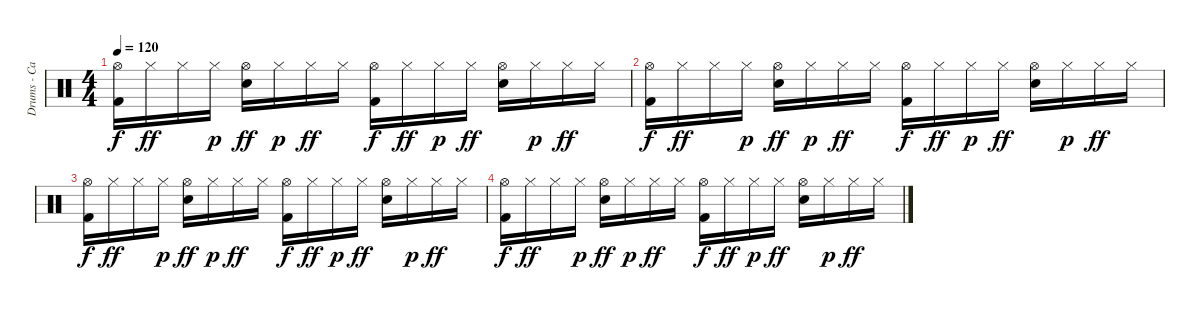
\track ("Drums - Carl Palmer" "Drums - Ca") {instrument percussion}
\staff {score}
\articulation defaults
\ts (4 4)
\tempo 120
\clef neutral
\ks c
("Hi-Hat (open)" "Kick (hit) 2").16{dy f} "Hi-Hat (closed)".16{dy ff} "Hi-Hat (closed)".16 "Hi-Hat (closed)".16{dy p} ("Hi-Hat (open)" "Snare (hit) 2").16{dy ff} "Hi-Hat (closed)".16{dy p} "Hi-Hat (closed)".16{dy ff} "Hi-Hat (closed)".16 ("Hi-Hat (open)" "Kick (hit) 2").16{dy f} "Hi-Hat (closed)".16{dy ff} "Hi-Hat (closed)".16{dy p} "Hi-Hat (closed)".16{dy ff} ("Hi-Hat (open)" "Snare (hit) 2").16 "Hi-Hat (closed)".16{dy p} "Hi-Hat (closed)".16{dy ff} "Hi-Hat (closed)".16 |
("Hi-Hat (open)" "Kick (hit) 2").16{dy f} "Hi-Hat (closed)".16{dy ff} "Hi-Hat (closed)".16 "Hi-Hat (closed)".16{dy p} ("Hi-Hat (open)" "Snare (hit) 2").16{dy ff} "Hi-Hat (closed)".16{dy p} "Hi-Hat (closed)".16{dy ff} "Hi-Hat (closed)".16 ("Hi-Hat (open)" "Kick (hit) 2").16{dy f} "Hi-Hat (closed)".16{dy ff} "Hi-Hat (closed)".16{dy p} "Hi-Hat (closed)".16{dy ff} ("Hi-Hat (open)" "Snare (hit) 2").16 "Hi-Hat (closed)".16{dy p} "Hi-Hat (closed)".16{dy ff} "Hi-Hat (closed)".16 |
("Hi-Hat (open)" "Kick (hit) 2").16{dy f volume 3} "Hi-Hat (closed)".16{dy ff} "Hi-Hat (closed)".16 "Hi-Hat (closed)".16{dy p} ("Hi-Hat (open)" "Snare (hit) 2").16{dy ff} "Hi-Hat (closed)".16{dy p} "Hi-Hat (closed)".16{dy ff} "Hi-Hat (closed)".16 ("Hi-Hat (open)" "Kick (hit) 2").16{dy f} "Hi-Hat (closed)".16{dy ff} "Hi-Hat (closed)".16{dy p} "Hi-Hat (closed)".16{dy ff} ("Hi-Hat (open)" "Snare (hit) 2").16 "Hi-Hat (closed)".16{dy p} "Hi-Hat (closed)".16{dy ff} "Hi-Hat (closed)".16 |
("Hi-Hat (open)" "Kick (hit) 2").16{dy f} "Hi-Hat (closed)".16{dy ff} "Hi-Hat (closed)".16 "Hi-Hat (closed)".16{dy p} ("Hi-Hat (open)" "Snare (hit) 2").16{dy ff} "Hi-Hat (closed)".16{dy p} "Hi-Hat (closed)".16{dy ff} "Hi-Hat (closed)".16 ("Hi-Hat (open)" "Kick (hit) 2").16{dy f} "Hi-Hat (closed)".16{dy ff} "Hi-Hat (closed)".16{dy p} "Hi-Hat (closed)".16{dy ff} ("Hi-Hat (open)" "Snare (hit) 2").16 "Hi-Hat (closed)".16{dy p} "Hi-Hat (closed)".16{dy ff} "Hi-Hat (closed)".16
